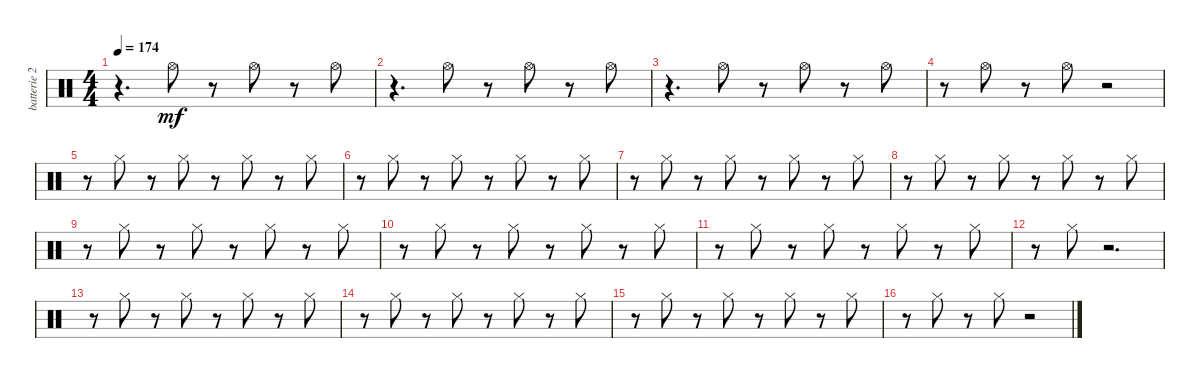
\track ("batterie 2" "batterie 2") {instrument percussion}
\staff {score}
\articulation defaults
\ts (4 4)
\tempo 174
\clef neutral
\ks c
r.4{d dy mf} "Hi-Hat (open)".8 r.8 "Hi-Hat (open)".8 r.8 "Hi-Hat (open)".8 |
r.4{d} "Hi-Hat (open)".8 r.8 "Hi-Hat (open)".8 r.8 "Hi-Hat (open)".8 |
r.4{d} "Hi-Hat (open)".8 r.8 "Hi-Hat (open)".8 r.8 "Hi-Hat (open)".8 |
r.8 "Hi-Hat (open)".8 r.8 "Hi-Hat (open)".8 r.2 |
r.8 "Hi-Hat (closed)".8 r.8 "Hi-Hat (closed)".8 r.8 "Hi-Hat (closed)".8 r.8 "Hi-Hat (closed)".8 |
r.8 "Hi-Hat (closed)".8 r.8 "Hi-Hat (closed)".8 r.8 "Hi-Hat (closed)".8 r.8 "Hi-Hat (closed)".8 |
r.8 "Hi-Hat (closed)".8 r.8 "Hi-Hat (closed)".8 r.8 "Hi-Hat (closed)".8 r.8 "Hi-Hat (closed)".8 |
r.8 "Hi-Hat (closed)".8 r.8 "Hi-Hat (closed)".8 r.8 "Hi-Hat (closed)".8 r.8 "Hi-Hat (closed)".8 |
r.8 "Hi-Hat (closed)".8 r.8 "Hi-Hat (closed)".8 r.8 "Hi-Hat (closed)".8 r.8 "Hi-Hat (closed)".8 |
r.8 "Hi-Hat (closed)".8 r.8 "Hi-Hat (closed)".8 r.8 "Hi-Hat (closed)".8 r.8 "Hi-Hat (closed)".8 |
r.8 "Hi-Hat (closed)".8 r.8 "Hi-Hat (closed)".8 r.8 "Hi-Hat (closed)".8 r.8 "Hi-Hat (closed)".8 |
r.8 "Hi-Hat (closed)".8 r.2{d} |
r.8 "Hi-Hat (closed)".8 r.8 "Hi-Hat (closed)".8 r.8 "Hi-Hat (closed)".8 r.8 "Hi-Hat (closed)".8 |
r.8 "Hi-Hat (closed)".8 r.8 "Hi-Hat (closed)".8 r.8 "Hi-Hat (closed)".8 r.8 "Hi-Hat (closed)".8 |
r.8 "Hi-Hat (closed)".8 r.8 "Hi-Hat (closed)".8 r.8 "Hi-Hat (closed)".8 r.8 "Hi-Hat (closed)".8 |
r.8 "Hi-Hat (closed)".8 r.8 "Hi-Hat (closed)".8 r.2
